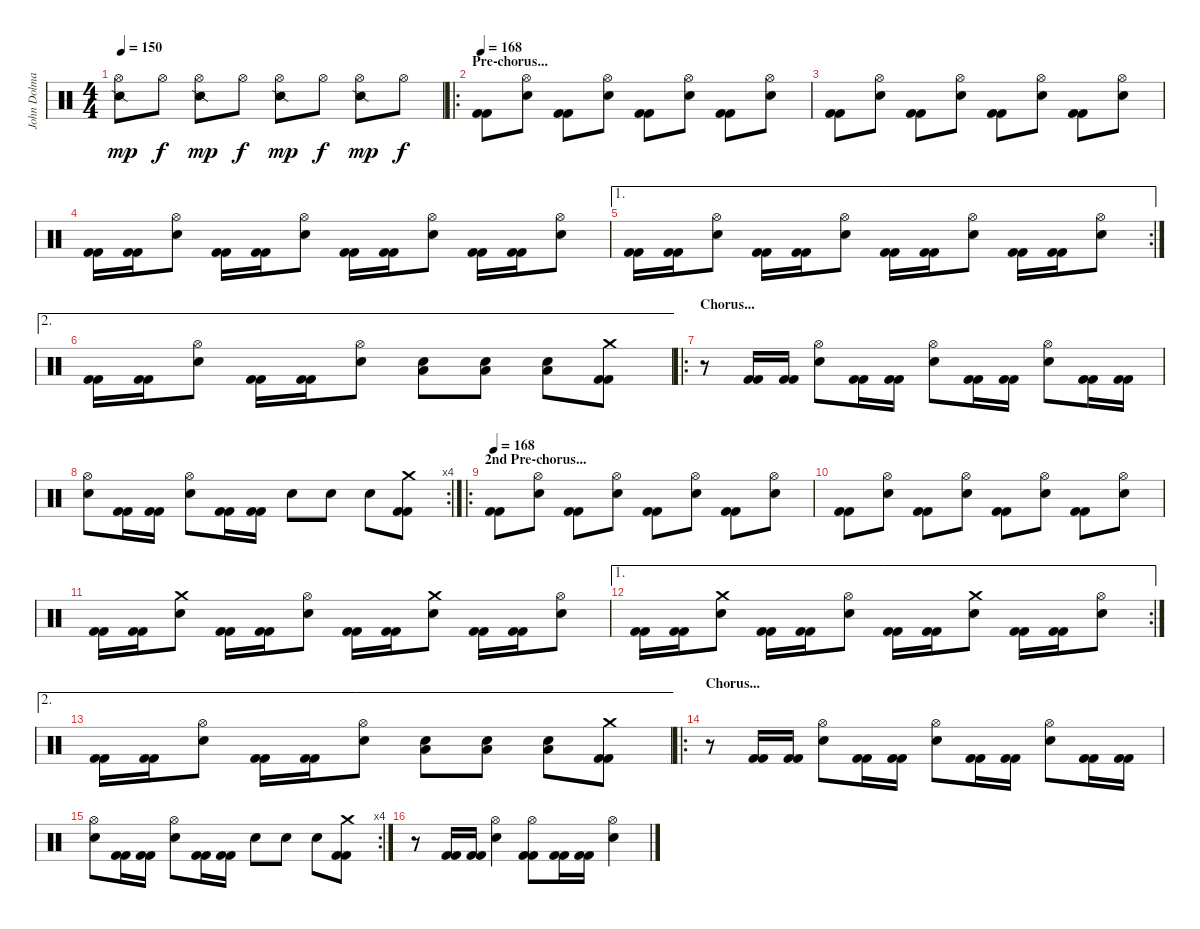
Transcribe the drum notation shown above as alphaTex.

\track ("John Dolmayan" "John Dolma") {instrument percussion}
\staff {score}
\articulation defaults
\ts (4 4)
\tempo 150
\clef neutral
\ks c
("Hi-Hat (open)" "Snare (side stick) 2").8{dy mp} "Hi-Hat (open)".8{dy f} ("Hi-Hat (open)" "Snare (side stick) 2").8{dy mp} "Hi-Hat (open)".8{dy f} ("Hi-Hat (open)" "Snare (side stick) 2").8{dy mp} "Hi-Hat (open)".8{dy f} ("Hi-Hat (open)" "Snare (side stick) 2").8{dy mp} "Hi-Hat (open)".8{dy f} |
\ro
\section ("" "Pre-chorus...")
\tempo 168
("Kick (hit) 2" "Kick (hit) 2").8 ("Hi-Hat (open)" "Electric Snare (hit)").8 ("Kick (hit) 2" "Kick (hit) 2").8 ("Hi-Hat (open)" "Electric Snare (hit)").8 ("Kick (hit) 2" "Kick (hit) 2").8 ("Hi-Hat (open)" "Electric Snare (hit)").8 ("Kick (hit) 2" "Kick (hit) 2").8 ("Hi-Hat (open)" "Electric Snare (hit)").8 |
("Kick (hit) 2" "Kick (hit) 2").8 ("Hi-Hat (open)" "Electric Snare (hit)").8 ("Kick (hit) 2" "Kick (hit) 2").8 ("Hi-Hat (open)" "Electric Snare (hit)").8 ("Kick (hit) 2" "Kick (hit) 2").8 ("Hi-Hat (open)" "Electric Snare (hit)").8 ("Kick (hit) 2" "Kick (hit) 2").8 ("Hi-Hat (open)" "Electric Snare (hit)").8 |
("Kick (hit) 2" "Kick (hit) 2").16 ("Kick (hit) 2" "Kick (hit) 2").16 ("Hi-Hat (open)" "Electric Snare (hit)").8 ("Kick (hit) 2" "Kick (hit) 2").16 ("Kick (hit) 2" "Kick (hit) 2").16 ("Hi-Hat (open)" "Electric Snare (hit)").8 ("Kick (hit) 2" "Kick (hit) 2").16 ("Kick (hit) 2" "Kick (hit) 2").16 ("Hi-Hat (open)" "Electric Snare (hit)").8 ("Kick (hit) 2" "Kick (hit) 2").16 ("Kick (hit) 2" "Kick (hit) 2").16 ("Hi-Hat (open)" "Electric Snare (hit)").8 |
\ae 1
\rc 2
("Kick (hit) 2" "Kick (hit) 2").16 ("Kick (hit) 2" "Kick (hit) 2").16 ("Hi-Hat (open)" "Electric Snare (hit)").8 ("Kick (hit) 2" "Kick (hit) 2").16 ("Kick (hit) 2" "Kick (hit) 2").16 ("Hi-Hat (open)" "Electric Snare (hit)").8 ("Kick (hit) 2" "Kick (hit) 2").16 ("Kick (hit) 2" "Kick (hit) 2").16 ("Hi-Hat (open)" "Electric Snare (hit)").8 ("Kick (hit) 2" "Kick (hit) 2").16 ("Kick (hit) 2" "Kick (hit) 2").16 ("Hi-Hat (open)" "Electric Snare (hit)").8 |
\ae 2
("Kick (hit) 2" "Kick (hit) 2").16 ("Kick (hit) 2" "Kick (hit) 2").16 ("Hi-Hat (open)" "Electric Snare (hit)").8 ("Kick (hit) 2" "Kick (hit) 2").16 ("Kick (hit) 2" "Kick (hit) 2").16 ("Hi-Hat (open)" "Electric Snare (hit)").8 ("Electric Snare (hit)" "Low Floor Tom (hit)").8 ("Electric Snare (hit)" "Low Floor Tom (hit)").8 ("Electric Snare (hit)" "Low Floor Tom (hit)").8 ("Crash medium (hit)" "Kick (hit) 2" "Kick (hit) 2").8 |
\ro
\section ("" "Chorus...")
r.8 ("Kick (hit) 2" "Kick (hit) 2").16 ("Kick (hit) 2" "Kick (hit) 2").16 ("Hi-Hat (open)" "Electric Snare (hit)").8 ("Kick (hit) 2" "Kick (hit) 2").16 ("Kick (hit) 2" "Kick (hit) 2").16 ("Hi-Hat (open)" "Electric Snare (hit)").8 ("Kick (hit) 2" "Kick (hit) 2").16 ("Kick (hit) 2" "Kick (hit) 2").16 ("Hi-Hat (open)" "Electric Snare (hit)").8 ("Kick (hit) 2" "Kick (hit) 2").16 ("Kick (hit) 2" "Kick (hit) 2").16 |
\rc 4
("Hi-Hat (open)" "Electric Snare (hit)").8 ("Kick (hit) 2" "Kick (hit) 2").16 ("Kick (hit) 2" "Kick (hit) 2").16 ("Hi-Hat (open)" "Electric Snare (hit)").8 ("Kick (hit) 2" "Kick (hit) 2").16 ("Kick (hit) 2" "Kick (hit) 2").16 "Electric Snare (hit)".8 "Electric Snare (hit)".8 "Electric Snare (hit)".8 ("Crash medium (hit)" "Kick (hit) 2" "Kick (hit) 2").8 |
\ro
\section ("" "2nd Pre-chorus...")
\tempo 168
("Kick (hit) 2" "Kick (hit) 2").8 ("Hi-Hat (open)" "Electric Snare (hit)").8 ("Kick (hit) 2" "Kick (hit) 2").8 ("Hi-Hat (open)" "Electric Snare (hit)").8 ("Kick (hit) 2" "Kick (hit) 2").8 ("Hi-Hat (open)" "Electric Snare (hit)").8 ("Kick (hit) 2" "Kick (hit) 2").8 ("Hi-Hat (open)" "Electric Snare (hit)").8 |
("Kick (hit) 2" "Kick (hit) 2").8 ("Hi-Hat (open)" "Electric Snare (hit)").8 ("Kick (hit) 2" "Kick (hit) 2").8 ("Hi-Hat (open)" "Electric Snare (hit)").8 ("Kick (hit) 2" "Kick (hit) 2").8 ("Hi-Hat (open)" "Electric Snare (hit)").8 ("Kick (hit) 2" "Kick (hit) 2").8 ("Hi-Hat (open)" "Electric Snare (hit)").8 |
("Kick (hit) 2" "Kick (hit) 2").16 ("Kick (hit) 2" "Kick (hit) 2").16 ("Crash medium (hit)" "Electric Snare (hit)").8 ("Kick (hit) 2" "Kick (hit) 2").16 ("Kick (hit) 2" "Kick (hit) 2").16 ("Hi-Hat (open)" "Electric Snare (hit)").8 ("Kick (hit) 2" "Kick (hit) 2").16 ("Kick (hit) 2" "Kick (hit) 2").16 ("Crash medium (hit)" "Electric Snare (hit)").8 ("Kick (hit) 2" "Kick (hit) 2").16 ("Kick (hit) 2" "Kick (hit) 2").16 ("Hi-Hat (open)" "Electric Snare (hit)").8 |
\ae 1
\rc 2
("Kick (hit) 2" "Kick (hit) 2").16 ("Kick (hit) 2" "Kick (hit) 2").16 ("Crash medium (hit)" "Electric Snare (hit)").8 ("Kick (hit) 2" "Kick (hit) 2").16 ("Kick (hit) 2" "Kick (hit) 2").16 ("Hi-Hat (open)" "Electric Snare (hit)").8 ("Kick (hit) 2" "Kick (hit) 2").16 ("Kick (hit) 2" "Kick (hit) 2").16 ("Crash medium (hit)" "Electric Snare (hit)").8 ("Kick (hit) 2" "Kick (hit) 2").16 ("Kick (hit) 2" "Kick (hit) 2").16 ("Hi-Hat (open)" "Electric Snare (hit)").8 |
\ae 2
("Kick (hit) 2" "Kick (hit) 2").16 ("Kick (hit) 2" "Kick (hit) 2").16 ("Hi-Hat (open)" "Electric Snare (hit)").8 ("Kick (hit) 2" "Kick (hit) 2").16 ("Kick (hit) 2" "Kick (hit) 2").16 ("Hi-Hat (open)" "Electric Snare (hit)").8 ("Electric Snare (hit)" "Low Floor Tom (hit)").8 ("Electric Snare (hit)" "Low Floor Tom (hit)").8 ("Electric Snare (hit)" "Low Floor Tom (hit)").8 ("Crash medium (hit)" "Kick (hit) 2" "Kick (hit) 2").8 |
\ro
\section ("" "Chorus...")
r.8 ("Kick (hit) 2" "Kick (hit) 2").16 ("Kick (hit) 2" "Kick (hit) 2").16 ("Hi-Hat (open)" "Electric Snare (hit)").8 ("Kick (hit) 2" "Kick (hit) 2").16 ("Kick (hit) 2" "Kick (hit) 2").16 ("Hi-Hat (open)" "Electric Snare (hit)").8 ("Kick (hit) 2" "Kick (hit) 2").16 ("Kick (hit) 2" "Kick (hit) 2").16 ("Hi-Hat (open)" "Electric Snare (hit)").8 ("Kick (hit) 2" "Kick (hit) 2").16 ("Kick (hit) 2" "Kick (hit) 2").16 |
\rc 4
("Hi-Hat (open)" "Electric Snare (hit)").8 ("Kick (hit) 2" "Kick (hit) 2").16 ("Kick (hit) 2" "Kick (hit) 2").16 ("Hi-Hat (open)" "Electric Snare (hit)").8 ("Kick (hit) 2" "Kick (hit) 2").16 ("Kick (hit) 2" "Kick (hit) 2").16 "Electric Snare (hit)".8 "Electric Snare (hit)".8 "Electric Snare (hit)".8 ("Crash medium (hit)" "Kick (hit) 2" "Kick (hit) 2").8 |
r.8 ("Kick (hit) 2" "Kick (hit) 2").16 ("Kick (hit) 2" "Kick (hit) 2").16 ("Hi-Hat (open)" "Electric Snare (hit)").4 ("Hi-Hat (open)" "Kick (hit) 2" "Kick (hit) 2").8 ("Kick (hit) 2" "Kick (hit) 2").16 ("Kick (hit) 2" "Kick (hit) 2").16 ("Hi-Hat (open)" "Electric Snare (hit)").4
